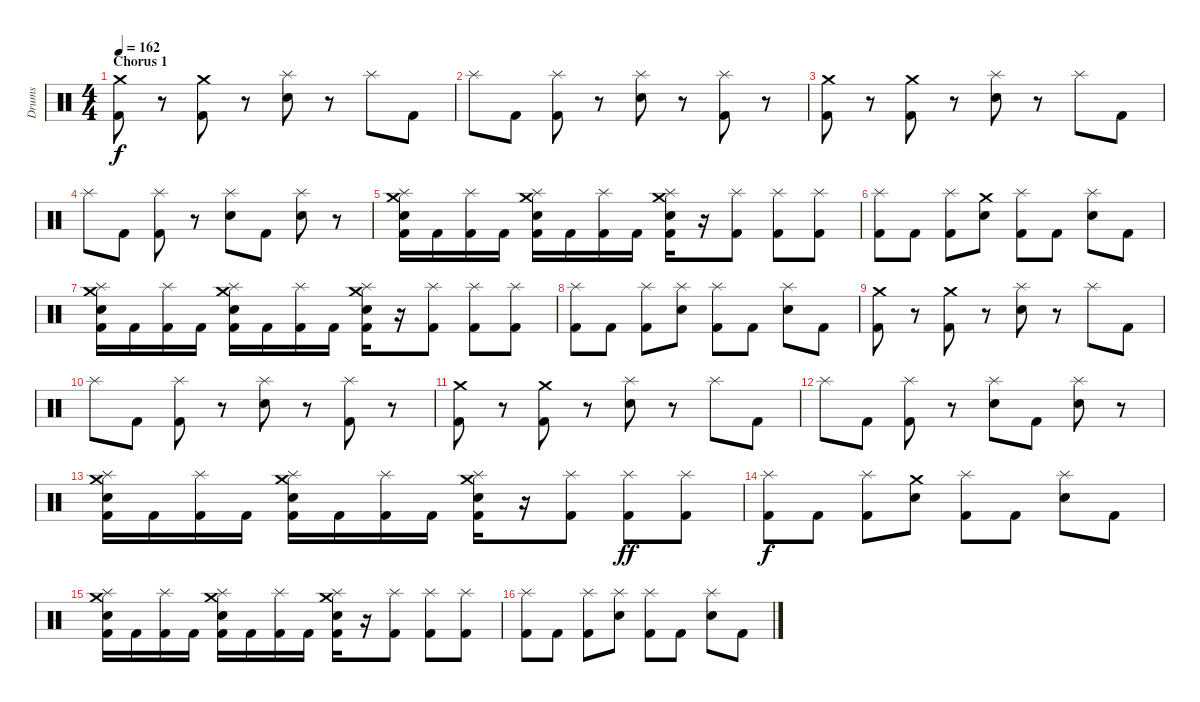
\track ("Drums" "Drums") {instrument percussion}
\staff {score}
\articulation defaults
\ts (4 4)
\section ("" "Chorus 1")
\tempo 162
\clef neutral
\ks c
("Kick (hit) 2" "Crash medium (hit)").8{dy f} r.8 ("Kick (hit) 2" "Crash medium (hit)").8 r.8 ("Snare (hit) 2" "Splash (hit)").8 r.8 "Splash (hit)".8 "Kick (hit) 2".8 |
"Splash (hit)".8 "Kick (hit) 2".8 ("Kick (hit) 2" "Splash (hit)").8 r.8 ("Snare (hit) 2" "Splash (hit)").8 r.8 ("Kick (hit) 2" "Splash (hit)").8 r.8 |
("Kick (hit) 2" "Crash medium (hit)").8 r.8 ("Kick (hit) 2" "Crash medium (hit)").8 r.8 ("Snare (hit) 2" "Splash (hit)").8 r.8 "Splash (hit)".8 "Kick (hit) 2".8 |
"Splash (hit)".8 "Kick (hit) 2".8 ("Kick (hit) 2" "Splash (hit)").8 r.8 ("Snare (hit) 2" "Splash (hit)").8 "Kick (hit) 2".8 ("Snare (hit) 2" "Splash (hit)").8 r.8 |
("Snare (hit) 2" "Kick (hit) 2" "Crash medium (hit)" "Splash (hit)").16 "Kick (hit) 2".16 ("Kick (hit) 2" "Splash (hit)").16 "Kick (hit) 2".16 ("Snare (hit) 2" "Kick (hit) 2" "Crash medium (hit)" "Splash (hit)").16 "Kick (hit) 2".16 ("Kick (hit) 2" "Splash (hit)").16 "Kick (hit) 2".16 ("Snare (hit) 2" "Kick (hit) 2" "Crash medium (hit)" "Splash (hit)").16 r.16 ("Kick (hit) 2" "Splash (hit)").8 ("Kick (hit) 2" "Splash (hit)").8 ("Kick (hit) 2" "Splash (hit)").8 |
("Kick (hit) 2" "Splash (hit)").8 "Kick (hit) 2".8 ("Kick (hit) 2" "Splash (hit)").8 ("Snare (hit) 2" "Crash medium (hit)").8 ("Kick (hit) 2" "Splash (hit)").8 "Kick (hit) 2".8 ("Snare (hit) 2" "Splash (hit)").8 "Kick (hit) 2".8 |
("Snare (hit) 2" "Kick (hit) 2" "Crash medium (hit)" "Splash (hit)").16 "Kick (hit) 2".16 ("Kick (hit) 2" "Splash (hit)").16 "Kick (hit) 2".16 ("Snare (hit) 2" "Kick (hit) 2" "Crash medium (hit)" "Splash (hit)").16 "Kick (hit) 2".16 ("Kick (hit) 2" "Splash (hit)").16 "Kick (hit) 2".16 ("Snare (hit) 2" "Kick (hit) 2" "Crash medium (hit)" "Splash (hit)").16 r.16 ("Kick (hit) 2" "Splash (hit)").8 ("Kick (hit) 2" "Splash (hit)").8 ("Kick (hit) 2" "Splash (hit)").8 |
("Kick (hit) 2" "Splash (hit)").8 "Kick (hit) 2".8 ("Kick (hit) 2" "Splash (hit)").8 ("Snare (hit) 2" "Splash (hit)").8 ("Kick (hit) 2" "Splash (hit)").8 "Kick (hit) 2".8 ("Snare (hit) 2" "Splash (hit)").8 "Kick (hit) 2".8 |
("Kick (hit) 2" "Crash medium (hit)").8 r.8 ("Kick (hit) 2" "Crash medium (hit)").8 r.8 ("Snare (hit) 2" "Splash (hit)").8 r.8 "Splash (hit)".8 "Kick (hit) 2".8 |
"Splash (hit)".8 "Kick (hit) 2".8 ("Kick (hit) 2" "Splash (hit)").8 r.8 ("Snare (hit) 2" "Splash (hit)").8 r.8 ("Kick (hit) 2" "Splash (hit)").8 r.8 |
("Kick (hit) 2" "Crash medium (hit)").8 r.8 ("Kick (hit) 2" "Crash medium (hit)").8 r.8 ("Snare (hit) 2" "Splash (hit)").8 r.8 "Splash (hit)".8 "Kick (hit) 2".8 |
"Splash (hit)".8 "Kick (hit) 2".8 ("Kick (hit) 2" "Splash (hit)").8 r.8 ("Snare (hit) 2" "Splash (hit)").8 "Kick (hit) 2".8 ("Snare (hit) 2" "Splash (hit)").8 r.8 |
("Snare (hit) 2" "Kick (hit) 2" "Crash medium (hit)" "Splash (hit)").16 "Kick (hit) 2".16 ("Kick (hit) 2" "Splash (hit)").16 "Kick (hit) 2".16 ("Snare (hit) 2" "Kick (hit) 2" "Crash medium (hit)" "Splash (hit)").16 "Kick (hit) 2".16 ("Kick (hit) 2" "Splash (hit)").16 "Kick (hit) 2".16 ("Snare (hit) 2" "Kick (hit) 2" "Crash medium (hit)" "Splash (hit)").16 r.16 ("Kick (hit) 2" "Splash (hit)").8 ("Kick (hit) 2" "Splash (hit)").8{dy ff} ("Kick (hit) 2" "Splash (hit)").8 |
("Kick (hit) 2" "Splash (hit)").8{dy f} "Kick (hit) 2".8 ("Kick (hit) 2" "Splash (hit)").8 ("Snare (hit) 2" "Crash medium (hit)").8 ("Kick (hit) 2" "Splash (hit)").8 "Kick (hit) 2".8 ("Snare (hit) 2" "Splash (hit)").8 "Kick (hit) 2".8 |
("Snare (hit) 2" "Kick (hit) 2" "Crash medium (hit)" "Splash (hit)").16 "Kick (hit) 2".16 ("Kick (hit) 2" "Splash (hit)").16 "Kick (hit) 2".16 ("Snare (hit) 2" "Kick (hit) 2" "Crash medium (hit)" "Splash (hit)").16 "Kick (hit) 2".16 ("Kick (hit) 2" "Splash (hit)").16 "Kick (hit) 2".16 ("Snare (hit) 2" "Kick (hit) 2" "Crash medium (hit)" "Splash (hit)").16 r.16 ("Kick (hit) 2" "Splash (hit)").8 ("Kick (hit) 2" "Splash (hit)").8 ("Kick (hit) 2" "Splash (hit)").8 |
("Kick (hit) 2" "Splash (hit)").8 "Kick (hit) 2".8 ("Kick (hit) 2" "Splash (hit)").8 ("Snare (hit) 2" "Splash (hit)").8 ("Kick (hit) 2" "Splash (hit)").8 "Kick (hit) 2".8 ("Snare (hit) 2" "Splash (hit)").8 "Kick (hit) 2".8
